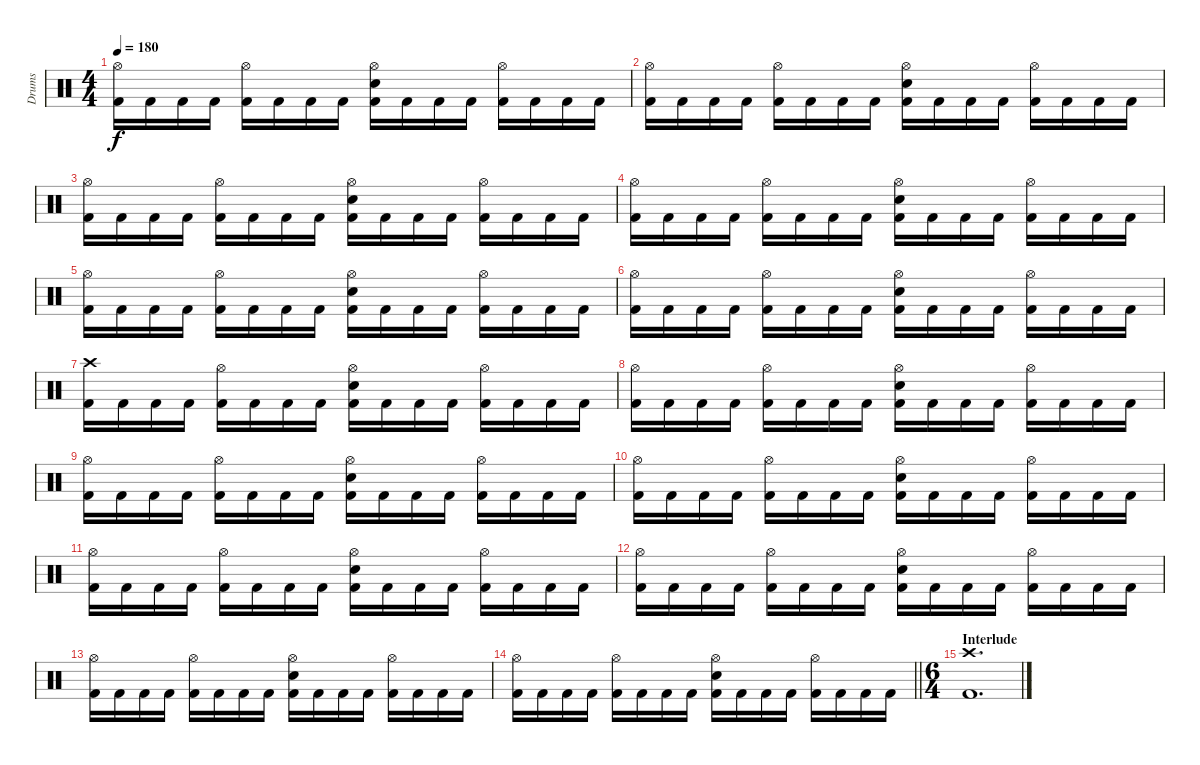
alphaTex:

\track ("Drums" "Drums") {instrument percussion}
\staff {score}
\articulation defaults
\ts (4 4)
\tempo 180
\clef neutral
\ks c
("Hi-Hat (open)" "Kick (hit) 2").16{dy f} "Kick (hit) 2".16 "Kick (hit) 2".16 "Kick (hit) 2".16 ("Hi-Hat (open)" "Kick (hit) 2").16 "Kick (hit) 2".16 "Kick (hit) 2".16 "Kick (hit) 2".16 ("Hi-Hat (open)" "Snare (hit) 2" "Kick (hit) 2").16 "Kick (hit) 2".16 "Kick (hit) 2".16 "Kick (hit) 2".16 ("Hi-Hat (open)" "Kick (hit) 2").16 "Kick (hit) 2".16 "Kick (hit) 2".16 "Kick (hit) 2".16 |
("Hi-Hat (open)" "Kick (hit) 2").16 "Kick (hit) 2".16 "Kick (hit) 2".16 "Kick (hit) 2".16 ("Hi-Hat (open)" "Kick (hit) 2").16 "Kick (hit) 2".16 "Kick (hit) 2".16 "Kick (hit) 2".16 ("Hi-Hat (open)" "Snare (hit) 2" "Kick (hit) 2").16 "Kick (hit) 2".16 "Kick (hit) 2".16 "Kick (hit) 2".16 ("Hi-Hat (open)" "Kick (hit) 2").16 "Kick (hit) 2".16 "Kick (hit) 2".16 "Kick (hit) 2".16 |
("Hi-Hat (open)" "Kick (hit) 2").16 "Kick (hit) 2".16 "Kick (hit) 2".16 "Kick (hit) 2".16 ("Hi-Hat (open)" "Kick (hit) 2").16 "Kick (hit) 2".16 "Kick (hit) 2".16 "Kick (hit) 2".16 ("Hi-Hat (open)" "Snare (hit) 2" "Kick (hit) 2").16 "Kick (hit) 2".16 "Kick (hit) 2".16 "Kick (hit) 2".16 ("Hi-Hat (open)" "Kick (hit) 2").16 "Kick (hit) 2".16 "Kick (hit) 2".16 "Kick (hit) 2".16 |
("Hi-Hat (open)" "Kick (hit) 2").16 "Kick (hit) 2".16 "Kick (hit) 2".16 "Kick (hit) 2".16 ("Hi-Hat (open)" "Kick (hit) 2").16 "Kick (hit) 2".16 "Kick (hit) 2".16 "Kick (hit) 2".16 ("Hi-Hat (open)" "Snare (hit) 2" "Kick (hit) 2").16 "Kick (hit) 2".16 "Kick (hit) 2".16 "Kick (hit) 2".16 ("Hi-Hat (open)" "Kick (hit) 2").16 "Kick (hit) 2".16 "Kick (hit) 2".16 "Kick (hit) 2".16 |
("Hi-Hat (open)" "Kick (hit) 2").16 "Kick (hit) 2".16 "Kick (hit) 2".16 "Kick (hit) 2".16 ("Hi-Hat (open)" "Kick (hit) 2").16 "Kick (hit) 2".16 "Kick (hit) 2".16 "Kick (hit) 2".16 ("Hi-Hat (open)" "Snare (hit) 2" "Kick (hit) 2").16 "Kick (hit) 2".16 "Kick (hit) 2".16 "Kick (hit) 2".16 ("Hi-Hat (open)" "Kick (hit) 2").16 "Kick (hit) 2".16 "Kick (hit) 2".16 "Kick (hit) 2".16 |
("Hi-Hat (open)" "Kick (hit) 2").16 "Kick (hit) 2".16 "Kick (hit) 2".16 "Kick (hit) 2".16 ("Hi-Hat (open)" "Kick (hit) 2").16 "Kick (hit) 2".16 "Kick (hit) 2".16 "Kick (hit) 2".16 ("Hi-Hat (open)" "Snare (hit) 2" "Kick (hit) 2").16 "Kick (hit) 2".16 "Kick (hit) 2".16 "Kick (hit) 2".16 ("Hi-Hat (open)" "Kick (hit) 2").16 "Kick (hit) 2".16 "Kick (hit) 2".16 "Kick (hit) 2".16 |
("Crash high (hit)" "Kick (hit) 2").16 "Kick (hit) 2".16 "Kick (hit) 2".16 "Kick (hit) 2".16 ("Hi-Hat (open)" "Kick (hit) 2").16 "Kick (hit) 2".16 "Kick (hit) 2".16 "Kick (hit) 2".16 ("Hi-Hat (open)" "Snare (hit) 2" "Kick (hit) 2").16 "Kick (hit) 2".16 "Kick (hit) 2".16 "Kick (hit) 2".16 ("Hi-Hat (open)" "Kick (hit) 2").16 "Kick (hit) 2".16 "Kick (hit) 2".16 "Kick (hit) 2".16 |
("Hi-Hat (open)" "Kick (hit) 2").16 "Kick (hit) 2".16 "Kick (hit) 2".16 "Kick (hit) 2".16 ("Hi-Hat (open)" "Kick (hit) 2").16 "Kick (hit) 2".16 "Kick (hit) 2".16 "Kick (hit) 2".16 ("Hi-Hat (open)" "Snare (hit) 2" "Kick (hit) 2").16 "Kick (hit) 2".16 "Kick (hit) 2".16 "Kick (hit) 2".16 ("Hi-Hat (open)" "Kick (hit) 2").16 "Kick (hit) 2".16 "Kick (hit) 2".16 "Kick (hit) 2".16 |
("Hi-Hat (open)" "Kick (hit) 2").16 "Kick (hit) 2".16 "Kick (hit) 2".16 "Kick (hit) 2".16 ("Hi-Hat (open)" "Kick (hit) 2").16 "Kick (hit) 2".16 "Kick (hit) 2".16 "Kick (hit) 2".16 ("Hi-Hat (open)" "Snare (hit) 2" "Kick (hit) 2").16 "Kick (hit) 2".16 "Kick (hit) 2".16 "Kick (hit) 2".16 ("Hi-Hat (open)" "Kick (hit) 2").16 "Kick (hit) 2".16 "Kick (hit) 2".16 "Kick (hit) 2".16 |
("Hi-Hat (open)" "Kick (hit) 2").16 "Kick (hit) 2".16 "Kick (hit) 2".16 "Kick (hit) 2".16 ("Hi-Hat (open)" "Kick (hit) 2").16 "Kick (hit) 2".16 "Kick (hit) 2".16 "Kick (hit) 2".16 ("Hi-Hat (open)" "Snare (hit) 2" "Kick (hit) 2").16 "Kick (hit) 2".16 "Kick (hit) 2".16 "Kick (hit) 2".16 ("Hi-Hat (open)" "Kick (hit) 2").16 "Kick (hit) 2".16 "Kick (hit) 2".16 "Kick (hit) 2".16 |
("Hi-Hat (open)" "Kick (hit) 2").16 "Kick (hit) 2".16 "Kick (hit) 2".16 "Kick (hit) 2".16 ("Hi-Hat (open)" "Kick (hit) 2").16 "Kick (hit) 2".16 "Kick (hit) 2".16 "Kick (hit) 2".16 ("Hi-Hat (open)" "Snare (hit) 2" "Kick (hit) 2").16 "Kick (hit) 2".16 "Kick (hit) 2".16 "Kick (hit) 2".16 ("Hi-Hat (open)" "Kick (hit) 2").16 "Kick (hit) 2".16 "Kick (hit) 2".16 "Kick (hit) 2".16 |
("Hi-Hat (open)" "Kick (hit) 2").16 "Kick (hit) 2".16 "Kick (hit) 2".16 "Kick (hit) 2".16 ("Hi-Hat (open)" "Kick (hit) 2").16 "Kick (hit) 2".16 "Kick (hit) 2".16 "Kick (hit) 2".16 ("Hi-Hat (open)" "Snare (hit) 2" "Kick (hit) 2").16 "Kick (hit) 2".16 "Kick (hit) 2".16 "Kick (hit) 2".16 ("Hi-Hat (open)" "Kick (hit) 2").16 "Kick (hit) 2".16 "Kick (hit) 2".16 "Kick (hit) 2".16 |
("Hi-Hat (open)" "Kick (hit) 2").16 "Kick (hit) 2".16 "Kick (hit) 2".16 "Kick (hit) 2".16 ("Hi-Hat (open)" "Kick (hit) 2").16 "Kick (hit) 2".16 "Kick (hit) 2".16 "Kick (hit) 2".16 ("Hi-Hat (open)" "Snare (hit) 2" "Kick (hit) 2").16 "Kick (hit) 2".16 "Kick (hit) 2".16 "Kick (hit) 2".16 ("Hi-Hat (open)" "Kick (hit) 2").16 "Kick (hit) 2".16 "Kick (hit) 2".16 "Kick (hit) 2".16 |
\barLineRight lightlight
("Hi-Hat (open)" "Kick (hit) 2").16 "Kick (hit) 2".16 "Kick (hit) 2".16 "Kick (hit) 2".16 ("Hi-Hat (open)" "Kick (hit) 2").16 "Kick (hit) 2".16 "Kick (hit) 2".16 "Kick (hit) 2".16 ("Hi-Hat (open)" "Snare (hit) 2" "Kick (hit) 2").16 "Kick (hit) 2".16 "Kick (hit) 2".16 "Kick (hit) 2".16 ("Hi-Hat (open)" "Kick (hit) 2").16 "Kick (hit) 2".16 "Kick (hit) 2".16 "Kick (hit) 2".16 |
\ts (6 4)
\section ("" "Interlude")
("Crash high (hit)" "Kick (hit) 2").1{d}
